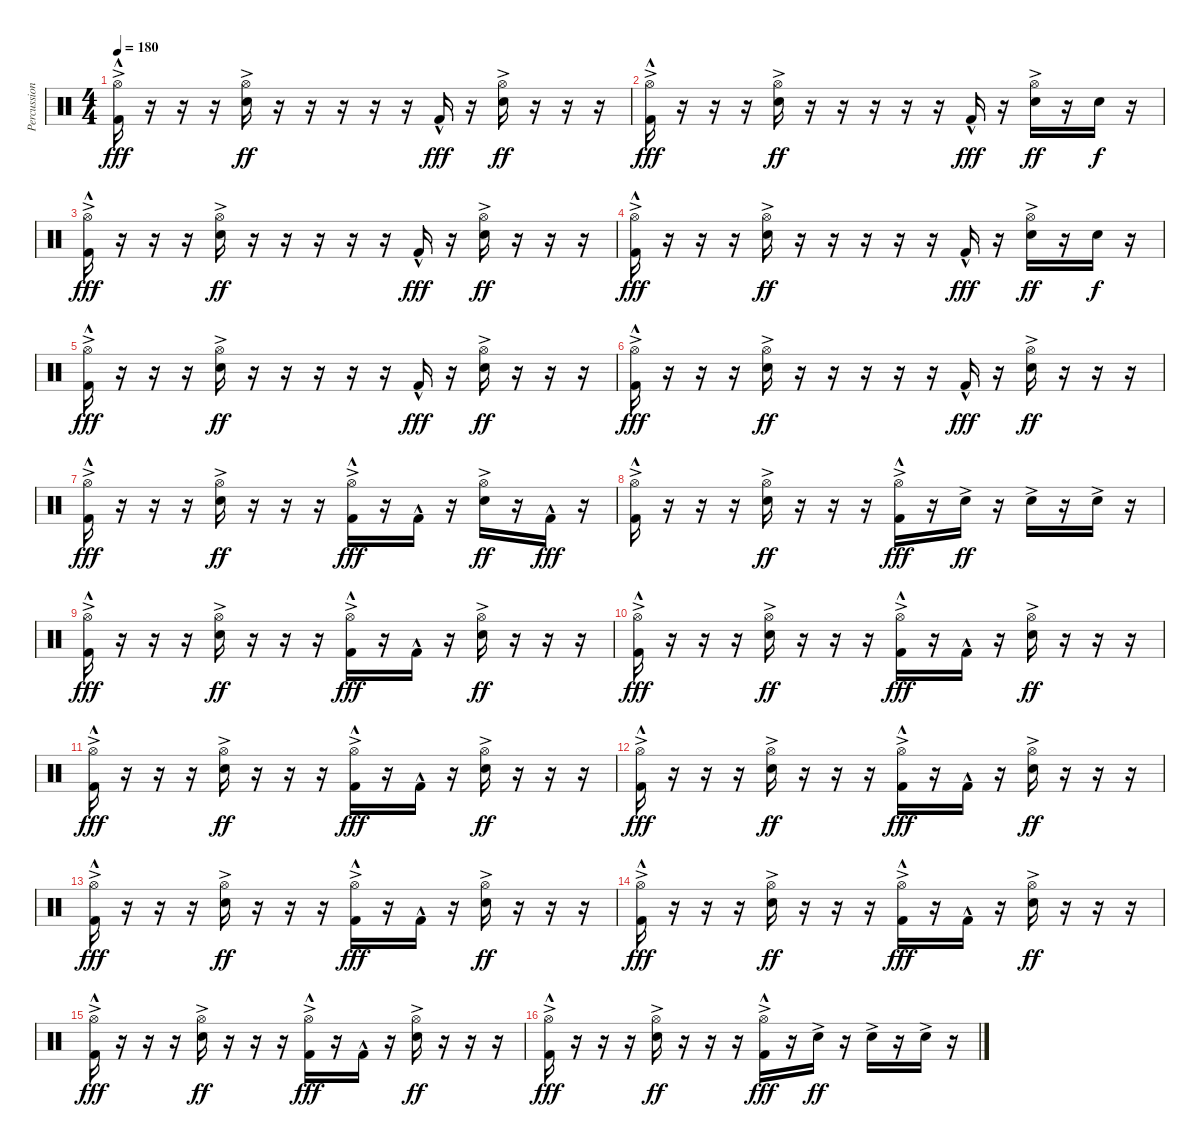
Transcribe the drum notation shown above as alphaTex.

\track ("Percussion" "Percussion") {instrument percussion}
\staff {score}
\articulation defaults
\ts (4 4)
\tempo 180
\clef neutral
\ks c
("Hi-Hat (open)"{ac} "Kick (hit) 2"{hac}).16{dy fff} r.16 r.16 r.16 ("Hi-Hat (open)"{ac} "Snare (hit) 2"{ac}).16{dy ff} r.16 r.16 r.16 r.16 r.16 "Kick (hit) 2"{hac}.16{dy fff} r.16 ("Hi-Hat (open)"{ac} "Snare (hit) 2"{ac}).16{dy ff} r.16 r.16 r.16 |
("Hi-Hat (open)"{ac} "Kick (hit) 2"{hac}).16{dy fff} r.16 r.16 r.16 ("Hi-Hat (open)"{ac} "Snare (hit) 2"{ac}).16{dy ff} r.16 r.16 r.16 r.16 r.16 "Kick (hit) 2"{hac}.16{dy fff} r.16 ("Hi-Hat (open)"{ac} "Snare (hit) 2"{ac}).16{dy ff} r.16 "Snare (hit) 2".16{dy f} r.16 |
("Hi-Hat (open)"{ac} "Kick (hit) 2"{hac}).16{dy fff} r.16 r.16 r.16 ("Hi-Hat (open)"{ac} "Snare (hit) 2"{ac}).16{dy ff} r.16 r.16 r.16 r.16 r.16 "Kick (hit) 2"{hac}.16{dy fff} r.16 ("Hi-Hat (open)"{ac} "Snare (hit) 2"{ac}).16{dy ff} r.16 r.16 r.16 |
("Hi-Hat (open)"{ac} "Kick (hit) 2"{hac}).16{dy fff} r.16 r.16 r.16 ("Hi-Hat (open)"{ac} "Snare (hit) 2"{ac}).16{dy ff} r.16 r.16 r.16 r.16 r.16 "Kick (hit) 2"{hac}.16{dy fff} r.16 ("Hi-Hat (open)"{ac} "Snare (hit) 2"{ac}).16{dy ff} r.16 "Snare (hit) 2".16{dy f} r.16 |
("Hi-Hat (open)"{ac} "Kick (hit) 2"{hac}).16{dy fff} r.16 r.16 r.16 ("Hi-Hat (open)"{ac} "Snare (hit) 2"{ac}).16{dy ff} r.16 r.16 r.16 r.16 r.16 "Kick (hit) 2"{hac}.16{dy fff} r.16 ("Hi-Hat (open)"{ac} "Snare (hit) 2"{ac}).16{dy ff} r.16 r.16 r.16 |
("Hi-Hat (open)"{ac} "Kick (hit) 2"{hac}).16{dy fff} r.16 r.16 r.16 ("Hi-Hat (open)"{ac} "Snare (hit) 2"{ac}).16{dy ff} r.16 r.16 r.16 r.16 r.16 "Kick (hit) 2"{hac}.16{dy fff} r.16 ("Hi-Hat (open)"{ac} "Snare (hit) 2"{ac}).16{dy ff} r.16 r.16 r.16 |
("Hi-Hat (open)"{ac} "Kick (hit) 2"{hac}).16{dy fff} r.16 r.16 r.16 ("Hi-Hat (open)"{ac} "Snare (hit) 2"{ac}).16{dy ff} r.16 r.16 r.16 ("Hi-Hat (open)"{ac} "Kick (hit) 2"{hac}).16{dy fff} r.16 "Kick (hit) 2"{hac}.16 r.16 ("Hi-Hat (open)"{ac} "Snare (hit) 2"{ac}).16{dy ff} r.16 "Kick (hit) 2"{hac}.16{dy fff} r.16 |
("Hi-Hat (open)"{ac} "Kick (hit) 2"{hac}).16 r.16 r.16 r.16 ("Hi-Hat (open)"{ac} "Snare (hit) 2"{ac}).16{dy ff} r.16 r.16 r.16 ("Hi-Hat (open)"{ac} "Kick (hit) 2"{hac}).16{dy fff} r.16 "Snare (hit) 2"{ac}.16{dy ff} r.16 "Snare (hit) 2"{ac}.16 r.16 "Snare (hit) 2"{ac}.16 r.16 |
("Hi-Hat (open)"{ac} "Kick (hit) 2"{hac}).16{dy fff} r.16 r.16 r.16 ("Hi-Hat (open)"{ac} "Snare (hit) 2"{ac}).16{dy ff} r.16 r.16 r.16 ("Hi-Hat (open)"{ac} "Kick (hit) 2"{hac}).16{dy fff} r.16 "Kick (hit) 2"{hac}.16 r.16 ("Hi-Hat (open)"{ac} "Snare (hit) 2"{ac}).16{dy ff} r.16 r.16 r.16 |
("Hi-Hat (open)"{ac} "Kick (hit) 2"{hac}).16{dy fff} r.16 r.16 r.16 ("Hi-Hat (open)"{ac} "Snare (hit) 2"{ac}).16{dy ff} r.16 r.16 r.16 ("Hi-Hat (open)"{ac} "Kick (hit) 2"{hac}).16{dy fff} r.16 "Kick (hit) 2"{hac}.16 r.16 ("Hi-Hat (open)"{ac} "Snare (hit) 2"{ac}).16{dy ff} r.16 r.16 r.16 |
("Hi-Hat (open)"{ac} "Kick (hit) 2"{hac}).16{dy fff} r.16 r.16 r.16 ("Hi-Hat (open)"{ac} "Snare (hit) 2"{ac}).16{dy ff} r.16 r.16 r.16 ("Hi-Hat (open)"{ac} "Kick (hit) 2"{hac}).16{dy fff} r.16 "Kick (hit) 2"{hac}.16 r.16 ("Hi-Hat (open)"{ac} "Snare (hit) 2"{ac}).16{dy ff} r.16 r.16 r.16 |
("Hi-Hat (open)"{ac} "Kick (hit) 2"{hac}).16{dy fff} r.16 r.16 r.16 ("Hi-Hat (open)"{ac} "Snare (hit) 2"{ac}).16{dy ff} r.16 r.16 r.16 ("Hi-Hat (open)"{ac} "Kick (hit) 2"{hac}).16{dy fff} r.16 "Kick (hit) 2"{hac}.16 r.16 ("Hi-Hat (open)"{ac} "Snare (hit) 2"{ac}).16{dy ff} r.16 r.16 r.16 |
("Hi-Hat (open)"{ac} "Kick (hit) 2"{hac}).16{dy fff} r.16 r.16 r.16 ("Hi-Hat (open)"{ac} "Snare (hit) 2"{ac}).16{dy ff} r.16 r.16 r.16 ("Hi-Hat (open)"{ac} "Kick (hit) 2"{hac}).16{dy fff} r.16 "Kick (hit) 2"{hac}.16 r.16 ("Hi-Hat (open)"{ac} "Snare (hit) 2"{ac}).16{dy ff} r.16 r.16 r.16 |
("Hi-Hat (open)"{ac} "Kick (hit) 2"{hac}).16{dy fff} r.16 r.16 r.16 ("Hi-Hat (open)"{ac} "Snare (hit) 2"{ac}).16{dy ff} r.16 r.16 r.16 ("Hi-Hat (open)"{ac} "Kick (hit) 2"{hac}).16{dy fff} r.16 "Kick (hit) 2"{hac}.16 r.16 ("Hi-Hat (open)"{ac} "Snare (hit) 2"{ac}).16{dy ff} r.16 r.16 r.16 |
("Hi-Hat (open)"{ac} "Kick (hit) 2"{hac}).16{dy fff} r.16 r.16 r.16 ("Hi-Hat (open)"{ac} "Snare (hit) 2"{ac}).16{dy ff} r.16 r.16 r.16 ("Hi-Hat (open)"{ac} "Kick (hit) 2"{hac}).16{dy fff} r.16 "Kick (hit) 2"{hac}.16 r.16 ("Hi-Hat (open)"{ac} "Snare (hit) 2"{ac}).16{dy ff} r.16 r.16 r.16 |
("Hi-Hat (open)"{ac} "Kick (hit) 2"{hac}).16{dy fff} r.16 r.16 r.16 ("Hi-Hat (open)"{ac} "Snare (hit) 2"{ac}).16{dy ff} r.16 r.16 r.16 ("Hi-Hat (open)"{ac} "Kick (hit) 2"{hac}).16{dy fff} r.16 "Snare (hit) 2"{ac}.16{dy ff} r.16 "Snare (hit) 2"{ac}.16 r.16 "Snare (hit) 2"{ac}.16 r.16
